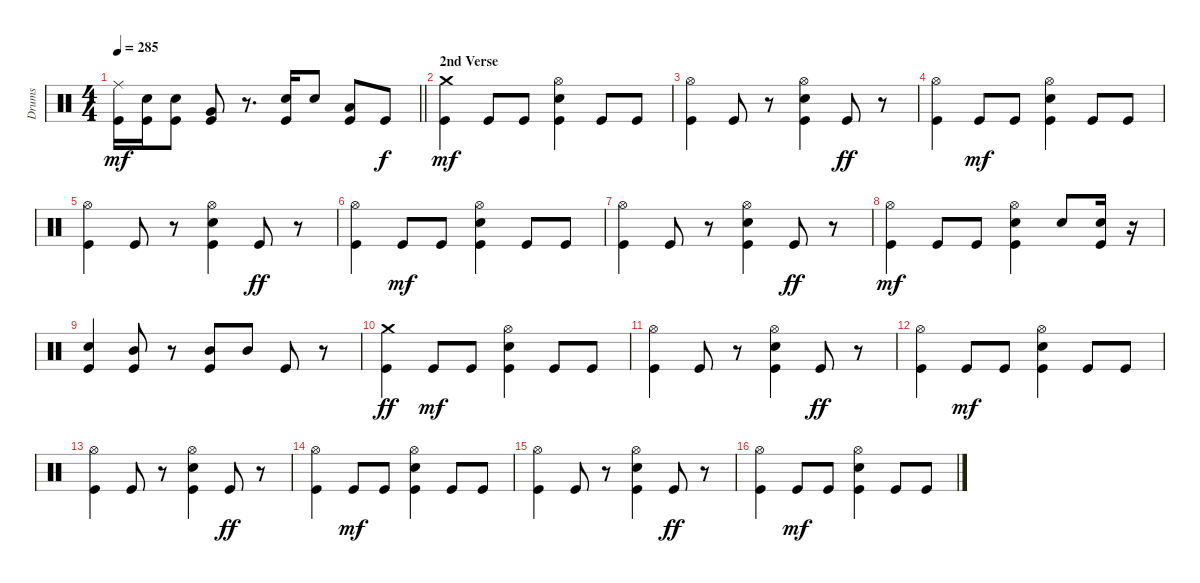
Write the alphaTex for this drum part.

\track ("Drums" "Drums") {instrument percussion}
\staff {score}
\articulation defaults
\ts (4 4)
\tempo 285
\clef neutral
\barLineRight lightlight
\ks c
("Ride (middle)" "Kick (hit)").16{dy mf} ("Snare (hit) 2" "Kick (hit)").16 ("Snare (hit) 2" "Kick (hit)").8 ("Very Low Tom (hit)" "Kick (hit)").8 r.8{d} ("Snare (hit) 2" "Kick (hit)").16 "Snare (hit) 2".8 ("Low Tom (hit)" "Kick (hit)").8 "Kick (hit)".8{dy f} |
\section ("" "2nd Verse")
("Crash medium (hit)" "Kick (hit)").4{dy mf} "Kick (hit)".8 "Kick (hit)".8 ("Hi-Hat (open)" "Snare (hit) 2" "Kick (hit)").4 "Kick (hit)".8 "Kick (hit)".8 |
("Hi-Hat (open)" "Kick (hit)").4 "Kick (hit)".8 r.8 ("Hi-Hat (open)" "Snare (hit) 2" "Kick (hit)").4 "Kick (hit)".8{dy ff} r.8 |
("Hi-Hat (open)" "Kick (hit)").4 "Kick (hit)".8{dy mf} "Kick (hit)".8 ("Hi-Hat (open)" "Snare (hit) 2" "Kick (hit)").4 "Kick (hit)".8 "Kick (hit)".8 |
("Hi-Hat (open)" "Kick (hit)").4 "Kick (hit)".8 r.8 ("Hi-Hat (open)" "Snare (hit) 2" "Kick (hit)").4 "Kick (hit)".8{dy ff} r.8 |
("Hi-Hat (open)" "Kick (hit)").4 "Kick (hit)".8{dy mf} "Kick (hit)".8 ("Hi-Hat (open)" "Snare (hit) 2" "Kick (hit)").4 "Kick (hit)".8 "Kick (hit)".8 |
("Hi-Hat (open)" "Kick (hit)").4 "Kick (hit)".8 r.8 ("Hi-Hat (open)" "Snare (hit) 2" "Kick (hit)").4 "Kick (hit)".8{dy ff} r.8 |
("Hi-Hat (open)" "Kick (hit)").4{dy mf} "Kick (hit)".8 "Kick (hit)".8 ("Hi-Hat (open)" "Snare (hit) 2" "Kick (hit)").4 "Snare (hit) 2".8 ("Snare (hit) 2" "Kick (hit)").16 r.16 |
("Snare (hit) 2" "Kick (hit)").4 ("Mid Tom (hit)" "Kick (hit)").8 r.8 ("Mid Tom (hit)" "Kick (hit)").8 "Mid Tom (hit)".8 "Kick (hit)".8 r.8 |
("Crash medium (hit)" "Kick (hit)").4{dy ff} "Kick (hit)".8{dy mf} "Kick (hit)".8 ("Hi-Hat (open)" "Snare (hit) 2" "Kick (hit)").4 "Kick (hit)".8 "Kick (hit)".8 |
("Hi-Hat (open)" "Kick (hit)").4 "Kick (hit)".8 r.8 ("Hi-Hat (open)" "Snare (hit) 2" "Kick (hit)").4 "Kick (hit)".8{dy ff} r.8 |
("Hi-Hat (open)" "Kick (hit)").4 "Kick (hit)".8{dy mf} "Kick (hit)".8 ("Hi-Hat (open)" "Snare (hit) 2" "Kick (hit)").4 "Kick (hit)".8 "Kick (hit)".8 |
("Hi-Hat (open)" "Kick (hit)").4 "Kick (hit)".8 r.8 ("Hi-Hat (open)" "Snare (hit) 2" "Kick (hit)").4 "Kick (hit)".8{dy ff} r.8 |
("Hi-Hat (open)" "Kick (hit)").4 "Kick (hit)".8{dy mf} "Kick (hit)".8 ("Hi-Hat (open)" "Snare (hit) 2" "Kick (hit)").4 "Kick (hit)".8 "Kick (hit)".8 |
("Hi-Hat (open)" "Kick (hit)").4 "Kick (hit)".8 r.8 ("Hi-Hat (open)" "Snare (hit) 2" "Kick (hit)").4 "Kick (hit)".8{dy ff} r.8 |
("Hi-Hat (open)" "Kick (hit)").4 "Kick (hit)".8{dy mf} "Kick (hit)".8 ("Hi-Hat (open)" "Snare (hit) 2" "Kick (hit)").4 "Kick (hit)".8 "Kick (hit)".8
